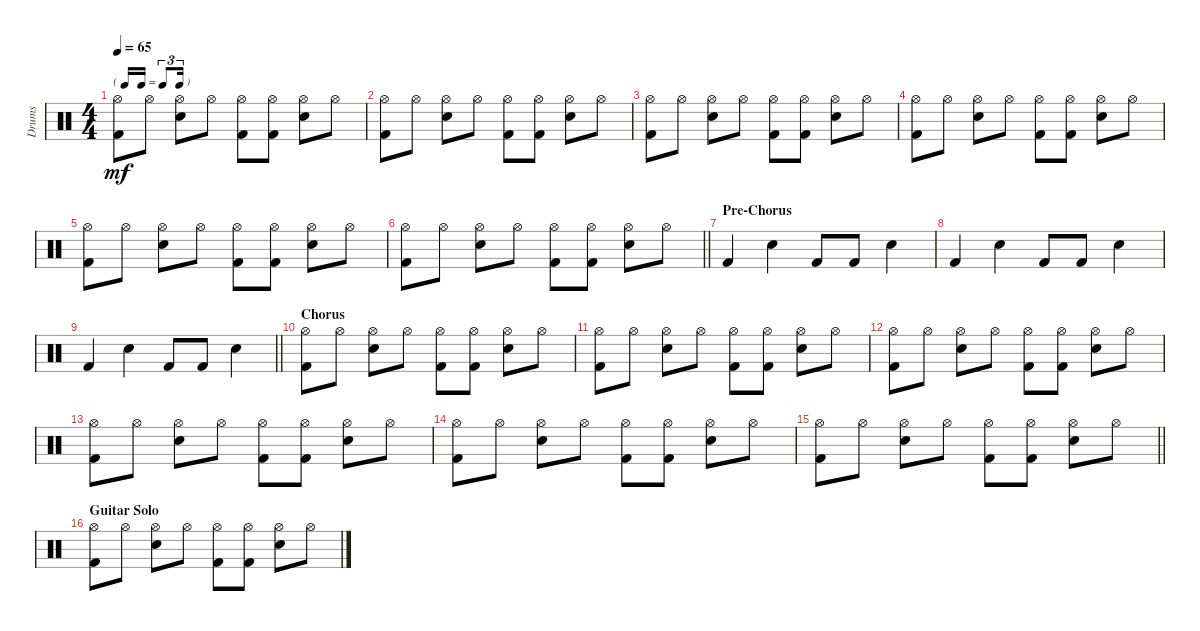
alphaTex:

\track ("Drums" "Drums") {instrument percussion}
\staff {score}
\articulation defaults
\ts (4 4)
\tf triplet16th
\tempo 65
\clef neutral
\ks c
("Hi-Hat (open)" "Kick (hit) 2").8{dy mf} "Hi-Hat (open)".8 ("Hi-Hat (open)" "Snare (hit) 2").8 "Hi-Hat (open)".8 ("Hi-Hat (open)" "Kick (hit) 2").8 ("Hi-Hat (open)" "Kick (hit) 2").8 ("Hi-Hat (open)" "Snare (hit) 2").8 "Hi-Hat (open)".8 |
("Hi-Hat (open)" "Kick (hit) 2").8 "Hi-Hat (open)".8 ("Hi-Hat (open)" "Snare (hit) 2").8 "Hi-Hat (open)".8 ("Hi-Hat (open)" "Kick (hit) 2").8 ("Hi-Hat (open)" "Kick (hit) 2").8 ("Hi-Hat (open)" "Snare (hit) 2").8 "Hi-Hat (open)".8 |
("Hi-Hat (open)" "Kick (hit) 2").8 "Hi-Hat (open)".8 ("Hi-Hat (open)" "Snare (hit) 2").8 "Hi-Hat (open)".8 ("Hi-Hat (open)" "Kick (hit) 2").8 ("Hi-Hat (open)" "Kick (hit) 2").8 ("Hi-Hat (open)" "Snare (hit) 2").8 "Hi-Hat (open)".8 |
("Hi-Hat (open)" "Kick (hit) 2").8 "Hi-Hat (open)".8 ("Hi-Hat (open)" "Snare (hit) 2").8 "Hi-Hat (open)".8 ("Hi-Hat (open)" "Kick (hit) 2").8 ("Hi-Hat (open)" "Kick (hit) 2").8 ("Hi-Hat (open)" "Snare (hit) 2").8 "Hi-Hat (open)".8 |
("Hi-Hat (open)" "Kick (hit) 2").8 "Hi-Hat (open)".8 ("Hi-Hat (open)" "Snare (hit) 2").8 "Hi-Hat (open)".8 ("Hi-Hat (open)" "Kick (hit) 2").8 ("Hi-Hat (open)" "Kick (hit) 2").8 ("Hi-Hat (open)" "Snare (hit) 2").8 "Hi-Hat (open)".8 |
\barLineRight lightlight
("Hi-Hat (open)" "Kick (hit) 2").8 "Hi-Hat (open)".8 ("Hi-Hat (open)" "Snare (hit) 2").8 "Hi-Hat (open)".8 ("Hi-Hat (open)" "Kick (hit) 2").8 ("Hi-Hat (open)" "Kick (hit) 2").8 ("Hi-Hat (open)" "Snare (hit) 2").8 "Hi-Hat (open)".8 |
\section ("" "Pre-Chorus")
"Kick (hit) 2".4 "Snare (hit) 2".4 "Kick (hit) 2".8 "Kick (hit) 2".8 "Snare (hit) 2".4 |
"Kick (hit) 2".4 "Snare (hit) 2".4 "Kick (hit) 2".8 "Kick (hit) 2".8 "Snare (hit) 2".4 |
\barLineRight lightlight "Kick (hit) 2".4 "Snare (hit) 2".4 "Kick (hit) 2".8 "Kick (hit) 2".8 "Snare (hit) 2".4
|
\section ("" "Chorus")
("Hi-Hat (open)" "Kick (hit) 2").8 "Hi-Hat (open)".8 ("Hi-Hat (open)" "Snare (hit) 2").8 "Hi-Hat (open)".8 ("Hi-Hat (open)" "Kick (hit) 2").8 ("Hi-Hat (open)" "Kick (hit) 2").8 ("Hi-Hat (open)" "Snare (hit) 2").8 "Hi-Hat (open)".8 |
("Hi-Hat (open)" "Kick (hit) 2").8 "Hi-Hat (open)".8 ("Hi-Hat (open)" "Snare (hit) 2").8 "Hi-Hat (open)".8 ("Hi-Hat (open)" "Kick (hit) 2").8 ("Hi-Hat (open)" "Kick (hit) 2").8 ("Hi-Hat (open)" "Snare (hit) 2").8 "Hi-Hat (open)".8 |
("Hi-Hat (open)" "Kick (hit) 2").8 "Hi-Hat (open)".8 ("Hi-Hat (open)" "Snare (hit) 2").8 "Hi-Hat (open)".8 ("Hi-Hat (open)" "Kick (hit) 2").8 ("Hi-Hat (open)" "Kick (hit) 2").8 ("Hi-Hat (open)" "Snare (hit) 2").8 "Hi-Hat (open)".8 |
("Hi-Hat (open)" "Kick (hit) 2").8 "Hi-Hat (open)".8 ("Hi-Hat (open)" "Snare (hit) 2").8 "Hi-Hat (open)".8 ("Hi-Hat (open)" "Kick (hit) 2").8 ("Hi-Hat (open)" "Kick (hit) 2").8 ("Hi-Hat (open)" "Snare (hit) 2").8 "Hi-Hat (open)".8 |
("Hi-Hat (open)" "Kick (hit) 2").8 "Hi-Hat (open)".8 ("Hi-Hat (open)" "Snare (hit) 2").8 "Hi-Hat (open)".8 ("Hi-Hat (open)" "Kick (hit) 2").8 ("Hi-Hat (open)" "Kick (hit) 2").8 ("Hi-Hat (open)" "Snare (hit) 2").8 "Hi-Hat (open)".8 |
\barLineRight lightlight
("Hi-Hat (open)" "Kick (hit) 2").8 "Hi-Hat (open)".8 ("Hi-Hat (open)" "Snare (hit) 2").8 "Hi-Hat (open)".8 ("Hi-Hat (open)" "Kick (hit) 2").8 ("Hi-Hat (open)" "Kick (hit) 2").8 ("Hi-Hat (open)" "Snare (hit) 2").8 "Hi-Hat (open)".8 |
\section ("" "Guitar Solo")
("Hi-Hat (open)" "Kick (hit) 2").8 "Hi-Hat (open)".8 ("Hi-Hat (open)" "Snare (hit) 2").8 "Hi-Hat (open)".8 ("Hi-Hat (open)" "Kick (hit) 2").8 ("Hi-Hat (open)" "Kick (hit) 2").8 ("Hi-Hat (open)" "Snare (hit) 2").8 "Hi-Hat (open)".8
